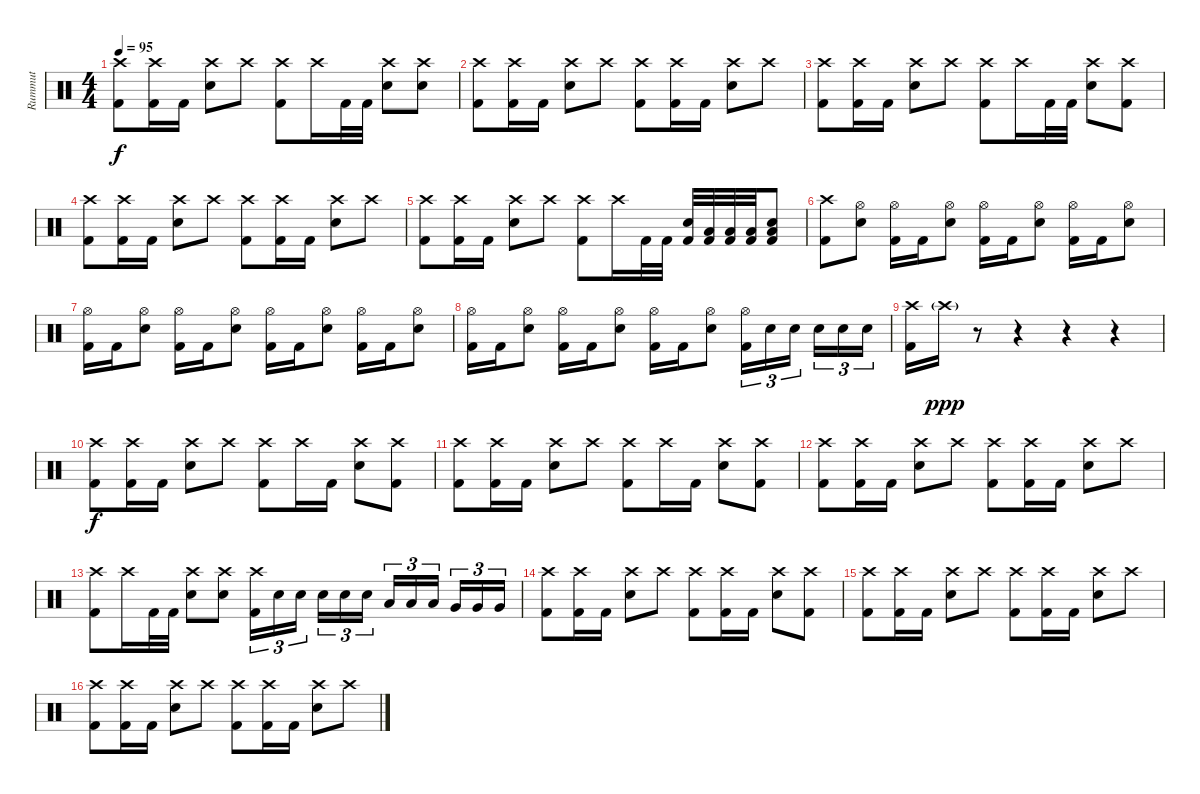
\track ("Rummut" "Rummut") {instrument percussion}
\staff {score}
\articulation defaults
\ts (4 4)
\tempo 95
\clef neutral
\ks c
("Crash high (hit)" "Kick (hit) 2").8{dy f} ("Crash high (hit)" "Kick (hit) 2").16 "Kick (hit) 2".16 ("Crash high (hit)" "Snare (hit) 2").8 "Crash high (hit)".8 ("Crash high (hit)" "Kick (hit) 2").8 "Crash high (hit)".16 "Kick (hit) 2".32 "Kick (hit) 2".32 ("Crash high (hit)" "Snare (hit) 2").8 ("Crash high (hit)" "Snare (hit) 2").8 |
("Crash high (hit)" "Kick (hit) 2").8 ("Crash high (hit)" "Kick (hit) 2").16 "Kick (hit) 2".16 ("Crash high (hit)" "Snare (hit) 2").8 "Crash high (hit)".8 ("Crash high (hit)" "Kick (hit) 2").8 ("Crash high (hit)" "Kick (hit) 2").16 "Kick (hit) 2".16 ("Crash high (hit)" "Snare (hit) 2").8 "Crash high (hit)".8 |
("Crash high (hit)" "Kick (hit) 2").8 ("Crash high (hit)" "Kick (hit) 2").16 "Kick (hit) 2".16 ("Crash high (hit)" "Snare (hit) 2").8 "Crash high (hit)".8 ("Crash high (hit)" "Kick (hit) 2").8 "Crash high (hit)".16 "Kick (hit) 2".32 "Kick (hit) 2".32 ("Crash high (hit)" "Snare (hit) 2").8 ("Crash high (hit)" "Kick (hit) 2").8 |
("Crash high (hit)" "Kick (hit) 2").8 ("Crash high (hit)" "Kick (hit) 2").16 "Kick (hit) 2".16 ("Crash high (hit)" "Snare (hit) 2").8 "Crash high (hit)".8 ("Crash high (hit)" "Kick (hit) 2").8 ("Crash high (hit)" "Kick (hit) 2").16 "Kick (hit) 2".16 ("Crash high (hit)" "Snare (hit) 2").8 "Crash high (hit)".8 |
("Crash high (hit)" "Kick (hit) 2").8 ("Crash high (hit)" "Kick (hit) 2").16 "Kick (hit) 2".16 ("Crash high (hit)" "Snare (hit) 2").8 "Crash high (hit)".8 ("Crash high (hit)" "Kick (hit) 2").8 "Crash high (hit)".16 "Kick (hit) 2".32 "Kick (hit) 2".32 ("Snare (hit) 2" "Kick (hit) 2").32 ("Low Tom (hit)" "Kick (hit) 2").32 ("Low Tom (hit)" "Kick (hit) 2").32 ("Low Tom (hit)" "Kick (hit) 2").32 ("Low Tom (hit)" "Snare (hit) 2" "Kick (hit) 2").8 |
("Crash high (hit)" "Kick (hit) 2").8 ("Hi-Hat (open)" "Snare (hit) 2").8 ("Hi-Hat (open)" "Kick (hit) 2").16 "Kick (hit) 2".16 ("Hi-Hat (open)" "Snare (hit) 2").8 ("Hi-Hat (open)" "Kick (hit) 2").16 "Kick (hit) 2".16 ("Hi-Hat (open)" "Snare (hit) 2").8 ("Hi-Hat (open)" "Kick (hit) 2").16 "Kick (hit) 2".16 ("Hi-Hat (open)" "Snare (hit) 2").8 |
("Hi-Hat (open)" "Kick (hit) 2").16 "Kick (hit) 2".16 ("Hi-Hat (open)" "Snare (hit) 2").8 ("Hi-Hat (open)" "Kick (hit) 2").16 "Kick (hit) 2".16 ("Hi-Hat (open)" "Snare (hit) 2").8 ("Hi-Hat (open)" "Kick (hit) 2").16 "Kick (hit) 2".16 ("Hi-Hat (open)" "Snare (hit) 2").8 ("Hi-Hat (open)" "Kick (hit) 2").16 "Kick (hit) 2".16 ("Hi-Hat (open)" "Snare (hit) 2").8 |
("Hi-Hat (open)" "Kick (hit) 2").16 "Kick (hit) 2".16 ("Hi-Hat (open)" "Snare (hit) 2").8 ("Hi-Hat (open)" "Kick (hit) 2").16 "Kick (hit) 2".16 ("Hi-Hat (open)" "Snare (hit) 2").8 ("Hi-Hat (open)" "Kick (hit) 2").16 "Kick (hit) 2".16 ("Hi-Hat (open)" "Snare (hit) 2").8 ("Hi-Hat (open)" "Kick (hit) 2").16{tu (3 2)} "Snare (hit) 2".16{tu (3 2)} "Snare (hit) 2".16{tu (3 2) beam splitsecondary} "Snare (hit) 2".16{tu (3 2)} "Snare (hit) 2".16{tu (3 2)} "Snare (hit) 2".16{tu (3 2)} |
("Crash high (hit)" "Kick (hit) 2").16 "Crash high (hit)"{g}.16{dy ppp} r.8 r.4 r.4 r.4 |
("Crash high (hit)" "Kick (hit) 2").8{dy f} ("Crash high (hit)" "Kick (hit) 2").16 "Kick (hit) 2".16 ("Crash high (hit)" "Snare (hit) 2").8 "Crash high (hit)".8 ("Crash high (hit)" "Kick (hit) 2").8 "Crash high (hit)".16 "Kick (hit) 2".16 ("Crash high (hit)" "Snare (hit) 2").8 ("Crash high (hit)" "Kick (hit) 2").8 |
("Crash high (hit)" "Kick (hit) 2").8 ("Crash high (hit)" "Kick (hit) 2").16 "Kick (hit) 2".16 ("Crash high (hit)" "Snare (hit) 2").8 "Crash high (hit)".8 ("Crash high (hit)" "Kick (hit) 2").8 "Crash high (hit)".16 "Kick (hit) 2".16 ("Crash high (hit)" "Snare (hit) 2").8 ("Crash high (hit)" "Kick (hit) 2").8 |
("Crash high (hit)" "Kick (hit) 2").8 ("Crash high (hit)" "Kick (hit) 2").16 "Kick (hit) 2".16 ("Crash high (hit)" "Snare (hit) 2").8 "Crash high (hit)".8 ("Crash high (hit)" "Kick (hit) 2").8 ("Crash high (hit)" "Kick (hit) 2").16 "Kick (hit) 2".16 ("Crash high (hit)" "Snare (hit) 2").8 "Crash high (hit)".8 |
("Crash high (hit)" "Kick (hit) 2").8 "Crash high (hit)".16 "Kick (hit) 2".32 "Kick (hit) 2".32 ("Crash high (hit)" "Snare (hit) 2").8 ("Crash high (hit)" "Snare (hit) 2").8 ("Crash high (hit)" "Kick (hit) 2").16{tu (3 2)} "Snare (hit) 2".16{tu (3 2)} "Snare (hit) 2".16{tu (3 2) beam splitsecondary} "Snare (hit) 2".16{tu (3 2)} "Snare (hit) 2".16{tu (3 2)} "Snare (hit) 2".16{tu (3 2)} "Low Tom (hit)".16{tu (3 2)} "Low Tom (hit)".16{tu (3 2)} "Low Tom (hit)".16{tu (3 2) beam splitsecondary} "Very Low Tom (hit)".16{tu (3 2)} "Very Low Tom (hit)".16{tu (3 2)} "Very Low Tom (hit)".16{tu (3 2)} |
("Crash high (hit)" "Kick (hit) 2").8 ("Crash high (hit)" "Kick (hit) 2").16 "Kick (hit) 2".16 ("Crash high (hit)" "Snare (hit) 2").8 "Crash high (hit)".8 ("Crash high (hit)" "Kick (hit) 2").8 ("Crash high (hit)" "Kick (hit) 2").16 "Kick (hit) 2".16 ("Crash high (hit)" "Snare (hit) 2").8 ("Crash high (hit)" "Kick (hit) 2").8 |
("Crash high (hit)" "Kick (hit) 2").8 ("Crash high (hit)" "Kick (hit) 2").16 "Kick (hit) 2".16 ("Crash high (hit)" "Snare (hit) 2").8 "Crash high (hit)".8 ("Crash high (hit)" "Kick (hit) 2").8 ("Crash high (hit)" "Kick (hit) 2").16 "Kick (hit) 2".16 ("Crash high (hit)" "Snare (hit) 2").8 "Crash high (hit)".8 |
("Crash high (hit)" "Kick (hit) 2").8 ("Crash high (hit)" "Kick (hit) 2").16 "Kick (hit) 2".16 ("Crash high (hit)" "Snare (hit) 2").8 "Crash high (hit)".8 ("Crash high (hit)" "Kick (hit) 2").8 ("Crash high (hit)" "Kick (hit) 2").16 "Kick (hit) 2".16 ("Crash high (hit)" "Snare (hit) 2").8 "Crash high (hit)".8
